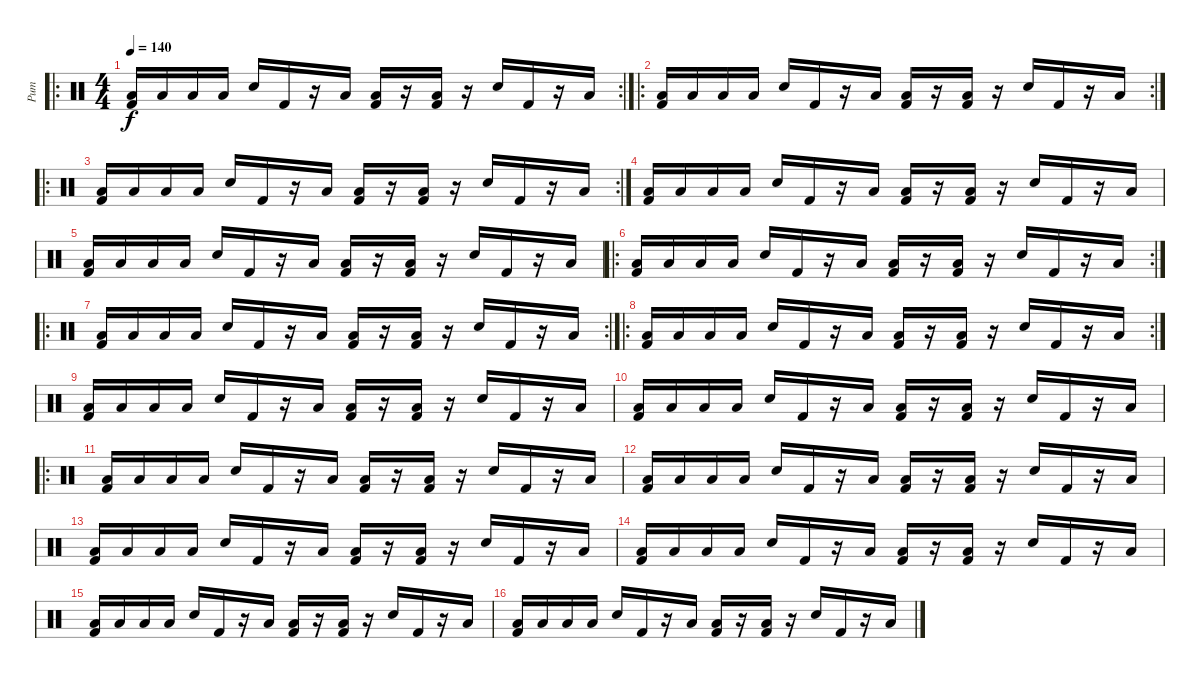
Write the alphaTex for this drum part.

\track ("Рит" "Рит") {instrument percussion}
\staff {score}
\articulation defaults
\ro
\rc 2
\ts (4 4)
\tempo 140
\clef neutral
\ks c
("Low Floor Tom (hit)" "Kick (hit) 2").16{dy f} "Low Floor Tom (hit)".16 "Low Floor Tom (hit)".16 "Low Floor Tom (hit)".16 "Snare (hit) 2".16 "Kick (hit) 2".16 r.16 "Low Tom (hit)".16 ("Low Floor Tom (hit)" "Kick (hit) 2").16 r.16 ("Low Floor Tom (hit)" "Kick (hit) 2").16 r.16 "Snare (hit) 2".16 "Kick (hit) 2".16 r.16 "Low Tom (hit)".16 |
\ro
\rc 2
("Low Floor Tom (hit)" "Kick (hit) 2").16 "Low Floor Tom (hit)".16 "Low Floor Tom (hit)".16 "Low Floor Tom (hit)".16 "Snare (hit) 2".16 "Kick (hit) 2".16 r.16 "Low Tom (hit)".16 ("Low Floor Tom (hit)" "Kick (hit) 2").16 r.16 ("Low Floor Tom (hit)" "Kick (hit) 2").16 r.16 "Snare (hit) 2".16 "Kick (hit) 2".16 r.16 "Low Tom (hit)".16 |
\ro
\rc 2
("Low Floor Tom (hit)" "Kick (hit) 2").16 "Low Floor Tom (hit)".16 "Low Floor Tom (hit)".16 "Low Floor Tom (hit)".16 "Snare (hit) 2".16 "Kick (hit) 2".16 r.16 "Low Tom (hit)".16 ("Low Floor Tom (hit)" "Kick (hit) 2").16 r.16 ("Low Floor Tom (hit)" "Kick (hit) 2").16 r.16 "Snare (hit) 2".16 "Kick (hit) 2".16 r.16 "Low Tom (hit)".16 |
("Low Floor Tom (hit)" "Kick (hit) 2").16 "Low Floor Tom (hit)".16 "Low Floor Tom (hit)".16 "Low Floor Tom (hit)".16 "Snare (hit) 2".16 "Kick (hit) 2".16 r.16 "Low Tom (hit)".16 ("Low Floor Tom (hit)" "Kick (hit) 2").16 r.16 ("Low Floor Tom (hit)" "Kick (hit) 2").16 r.16 "Snare (hit) 2".16 "Kick (hit) 2".16 r.16 "Low Tom (hit)".16 |
("Low Floor Tom (hit)" "Kick (hit) 2").16 "Low Floor Tom (hit)".16 "Low Floor Tom (hit)".16 "Low Floor Tom (hit)".16 "Snare (hit) 2".16 "Kick (hit) 2".16 r.16 "Low Tom (hit)".16 ("Low Floor Tom (hit)" "Kick (hit) 2").16 r.16 ("Low Floor Tom (hit)" "Kick (hit) 2").16 r.16 "Snare (hit) 2".16 "Kick (hit) 2".16 r.16 "Low Tom (hit)".16 |
\ro
\rc 2
("Low Floor Tom (hit)" "Kick (hit) 2").16 "Low Floor Tom (hit)".16 "Low Floor Tom (hit)".16 "Low Floor Tom (hit)".16 "Snare (hit) 2".16 "Kick (hit) 2".16 r.16 "Low Tom (hit)".16 ("Low Floor Tom (hit)" "Kick (hit) 2").16 r.16 ("Low Floor Tom (hit)" "Kick (hit) 2").16 r.16 "Snare (hit) 2".16 "Kick (hit) 2".16 r.16 "Low Tom (hit)".16 |
\ro
\rc 2
("Low Floor Tom (hit)" "Kick (hit) 2").16 "Low Floor Tom (hit)".16 "Low Floor Tom (hit)".16 "Low Floor Tom (hit)".16 "Snare (hit) 2".16 "Kick (hit) 2".16 r.16 "Low Tom (hit)".16 ("Low Floor Tom (hit)" "Kick (hit) 2").16 r.16 ("Low Floor Tom (hit)" "Kick (hit) 2").16 r.16 "Snare (hit) 2".16 "Kick (hit) 2".16 r.16 "Low Tom (hit)".16 |
\ro
\rc 2
("Low Floor Tom (hit)" "Kick (hit) 2").16 "Low Floor Tom (hit)".16 "Low Floor Tom (hit)".16 "Low Floor Tom (hit)".16 "Snare (hit) 2".16 "Kick (hit) 2".16 r.16 "Low Tom (hit)".16 ("Low Floor Tom (hit)" "Kick (hit) 2").16 r.16 ("Low Floor Tom (hit)" "Kick (hit) 2").16 r.16 "Snare (hit) 2".16 "Kick (hit) 2".16 r.16 "Low Tom (hit)".16 |
("Low Floor Tom (hit)" "Kick (hit) 2").16 "Low Floor Tom (hit)".16 "Low Floor Tom (hit)".16 "Low Floor Tom (hit)".16 "Snare (hit) 2".16 "Kick (hit) 2".16 r.16 "Low Tom (hit)".16 ("Low Floor Tom (hit)" "Kick (hit) 2").16 r.16 ("Low Floor Tom (hit)" "Kick (hit) 2").16 r.16 "Snare (hit) 2".16 "Kick (hit) 2".16 r.16 "Low Tom (hit)".16 |
("Low Floor Tom (hit)" "Kick (hit) 2").16 "Low Floor Tom (hit)".16 "Low Floor Tom (hit)".16 "Low Floor Tom (hit)".16 "Snare (hit) 2".16 "Kick (hit) 2".16 r.16 "Low Tom (hit)".16 ("Low Floor Tom (hit)" "Kick (hit) 2").16 r.16 ("Low Floor Tom (hit)" "Kick (hit) 2").16 r.16 "Snare (hit) 2".16 "Kick (hit) 2".16 r.16 "Low Tom (hit)".16 |
\ro
("Low Floor Tom (hit)" "Kick (hit) 2").16{volume 16 balance 0} "Low Floor Tom (hit)".16{balance 16} "Low Floor Tom (hit)".16{balance 0} "Low Floor Tom (hit)".16{balance 16} "Snare (hit) 2".16{balance 0} "Kick (hit) 2".16{balance 16} r.16 "Low Tom (hit)".16{balance 0} ("Low Floor Tom (hit)" "Kick (hit) 2").16{balance 16} r.16 ("Low Floor Tom (hit)" "Kick (hit) 2").16{balance 0} r.16 "Snare (hit) 2".16{balance 0} "Kick (hit) 2".16{balance 0} r.16 "Low Tom (hit)".16{balance 16} |
("Low Floor Tom (hit)" "Kick (hit) 2").16{volume 14 balance 0} "Low Floor Tom (hit)".16{balance 16} "Low Floor Tom (hit)".16{balance 0} "Low Floor Tom (hit)".16{balance 16} "Snare (hit) 2".16{balance 0} "Kick (hit) 2".16{balance 16} r.16 "Low Tom (hit)".16{balance 0} ("Low Floor Tom (hit)" "Kick (hit) 2").16{balance 16} r.16 ("Low Floor Tom (hit)" "Kick (hit) 2").16{balance 0} r.16 "Snare (hit) 2".16{balance 0} "Kick (hit) 2".16{balance 0} r.16 "Low Tom (hit)".16{balance 16} |
("Low Floor Tom (hit)" "Kick (hit) 2").16{volume 12 balance 0} "Low Floor Tom (hit)".16{balance 16} "Low Floor Tom (hit)".16{balance 0} "Low Floor Tom (hit)".16{balance 16} "Snare (hit) 2".16{balance 0} "Kick (hit) 2".16{balance 16} r.16 "Low Tom (hit)".16{balance 0} ("Low Floor Tom (hit)" "Kick (hit) 2").16{balance 16} r.16 ("Low Floor Tom (hit)" "Kick (hit) 2").16{balance 0} r.16 "Snare (hit) 2".16{balance 0} "Kick (hit) 2".16{balance 0} r.16 "Low Tom (hit)".16{balance 16} |
("Low Floor Tom (hit)" "Kick (hit) 2").16{volume 10 balance 0} "Low Floor Tom (hit)".16{balance 16} "Low Floor Tom (hit)".16{balance 0} "Low Floor Tom (hit)".16{balance 16} "Snare (hit) 2".16{balance 0} "Kick (hit) 2".16{balance 16} r.16 "Low Tom (hit)".16{balance 0} ("Low Floor Tom (hit)" "Kick (hit) 2").16{balance 16} r.16 ("Low Floor Tom (hit)" "Kick (hit) 2").16{balance 0} r.16 "Snare (hit) 2".16{balance 0} "Kick (hit) 2".16{balance 0} r.16 "Low Tom (hit)".16{balance 16} |
("Low Floor Tom (hit)" "Kick (hit) 2").16{volume 8 balance 0} "Low Floor Tom (hit)".16{balance 16} "Low Floor Tom (hit)".16{balance 0} "Low Floor Tom (hit)".16{balance 16} "Snare (hit) 2".16{balance 0} "Kick (hit) 2".16{balance 16} r.16 "Low Tom (hit)".16{balance 0} ("Low Floor Tom (hit)" "Kick (hit) 2").16{balance 16} r.16 ("Low Floor Tom (hit)" "Kick (hit) 2").16{balance 0} r.16 "Snare (hit) 2".16{balance 0} "Kick (hit) 2".16{balance 0} r.16 "Low Tom (hit)".16{balance 16} |
("Low Floor Tom (hit)" "Kick (hit) 2").16{volume 7 balance 0} "Low Floor Tom (hit)".16{balance 16} "Low Floor Tom (hit)".16{balance 0} "Low Floor Tom (hit)".16{balance 16} "Snare (hit) 2".16{balance 0} "Kick (hit) 2".16{balance 16} r.16 "Low Tom (hit)".16{balance 0} ("Low Floor Tom (hit)" "Kick (hit) 2").16{balance 16} r.16 ("Low Floor Tom (hit)" "Kick (hit) 2").16{balance 0} r.16 "Snare (hit) 2".16{balance 0} "Kick (hit) 2".16{balance 0} r.16 "Low Tom (hit)".16{balance 16}
